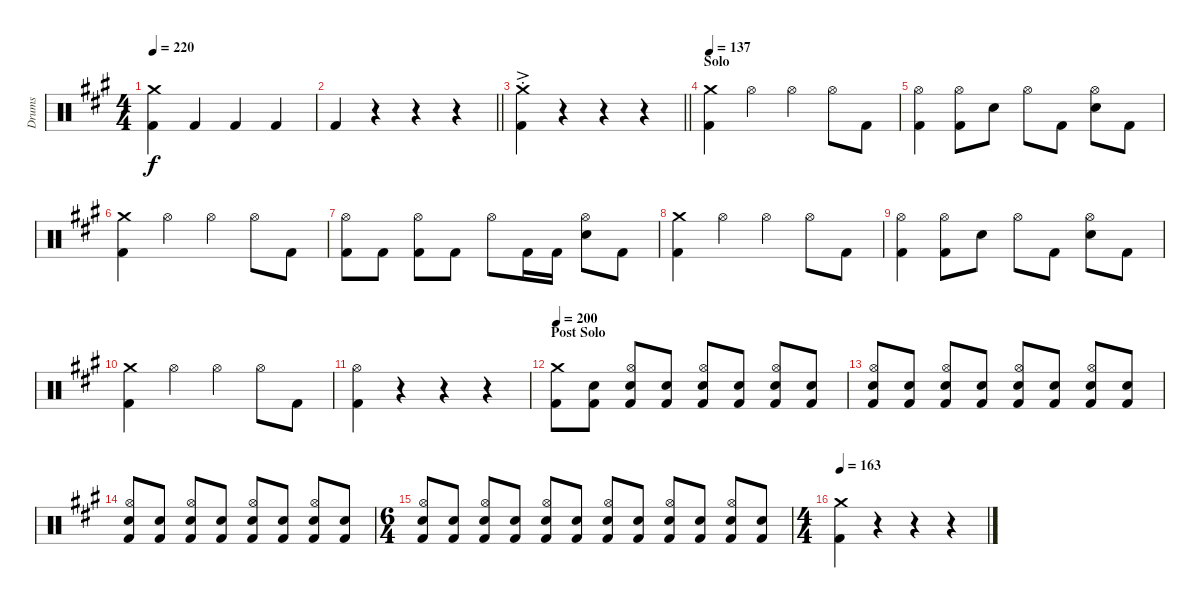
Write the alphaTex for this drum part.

\track ("Drums" "Drums") {instrument percussion}
\staff {score}
\articulation defaults
\ts (4 4)
\tempo 220
\clef neutral
\ks a
("Crash medium (hit)" "Kick (hit) 2").4{dy f} "Kick (hit) 2".4 "Kick (hit) 2".4 "Kick (hit) 2".4 |
\barLineRight lightlight "Kick (hit) 2".4
r.4 r.4 r.4 |
\barLineRight lightlight
("Crash medium (hit)"{ac st} "Kick (hit) 2").4 r.4 r.4 r.4 |
\section ("" "Solo")
\tempo 137
("Crash medium (hit)" "Kick (hit) 2").4 "Hi-Hat (open)".4 "Hi-Hat (open)".4 "Hi-Hat (open)".8 "Kick (hit) 2".8 |
("Hi-Hat (open)" "Kick (hit) 2").4 ("Hi-Hat (open)" "Kick (hit) 2").8 "Snare (hit) 2".8 "Hi-Hat (open)".8 "Kick (hit) 2".8 ("Hi-Hat (open)" "Snare (hit) 2").8 "Kick (hit) 2".8 |
("Crash medium (hit)" "Kick (hit) 2").4 "Hi-Hat (open)".4 "Hi-Hat (open)".4 "Hi-Hat (open)".8 "Kick (hit) 2".8 |
("Kick (hit) 2" "Hi-Hat (open)").8 "Kick (hit) 2".8 ("Kick (hit) 2" "Hi-Hat (open)").8 "Kick (hit) 2".8 "Hi-Hat (open)".8 "Kick (hit) 2".16 "Kick (hit) 2".16 ("Hi-Hat (open)" "Snare (hit) 2").8 "Kick (hit) 2".8 |
("Crash medium (hit)" "Kick (hit) 2").4 "Hi-Hat (open)".4 "Hi-Hat (open)".4 "Hi-Hat (open)".8 "Kick (hit) 2".8 |
("Hi-Hat (open)" "Kick (hit) 2").4 ("Hi-Hat (open)" "Kick (hit) 2").8 "Snare (hit) 2".8 "Hi-Hat (open)".8 "Kick (hit) 2".8 ("Hi-Hat (open)" "Snare (hit) 2").8 "Kick (hit) 2".8 |
("Crash medium (hit)" "Kick (hit) 2").4 "Hi-Hat (open)".4 "Hi-Hat (open)".4 "Hi-Hat (open)".8 "Kick (hit) 2".8 |
("Hi-Hat (open)" "Kick (hit) 2").4 r.4 r.4 r.4 |
\section ("" "Post Solo")
\tempo 200
("Crash medium (hit)" "Kick (hit) 2").8 ("Snare (hit) 2" "Kick (hit) 2").8 ("Hi-Hat (open)" "Snare (hit) 2" "Kick (hit) 2").8 ("Snare (hit) 2" "Kick (hit) 2").8 ("Hi-Hat (open)" "Snare (hit) 2" "Kick (hit) 2").8 ("Snare (hit) 2" "Kick (hit) 2").8 ("Hi-Hat (open)" "Snare (hit) 2" "Kick (hit) 2").8 ("Snare (hit) 2" "Kick (hit) 2").8 |
("Hi-Hat (open)" "Snare (hit) 2" "Kick (hit) 2").8 ("Snare (hit) 2" "Kick (hit) 2").8 ("Hi-Hat (open)" "Snare (hit) 2" "Kick (hit) 2").8 ("Snare (hit) 2" "Kick (hit) 2").8 ("Hi-Hat (open)" "Snare (hit) 2" "Kick (hit) 2").8 ("Snare (hit) 2" "Kick (hit) 2").8 ("Hi-Hat (open)" "Snare (hit) 2" "Kick (hit) 2").8 ("Snare (hit) 2" "Kick (hit) 2").8 |
("Hi-Hat (open)" "Snare (hit) 2" "Kick (hit) 2").8 ("Snare (hit) 2" "Kick (hit) 2").8 ("Hi-Hat (open)" "Snare (hit) 2" "Kick (hit) 2").8 ("Snare (hit) 2" "Kick (hit) 2").8 ("Hi-Hat (open)" "Snare (hit) 2" "Kick (hit) 2").8 ("Snare (hit) 2" "Kick (hit) 2").8 ("Hi-Hat (open)" "Snare (hit) 2" "Kick (hit) 2").8 ("Snare (hit) 2" "Kick (hit) 2").8 |
\ts (6 4)
("Hi-Hat (open)" "Snare (hit) 2" "Kick (hit) 2").8 ("Snare (hit) 2" "Kick (hit) 2").8 ("Hi-Hat (open)" "Snare (hit) 2" "Kick (hit) 2").8 ("Snare (hit) 2" "Kick (hit) 2").8 ("Hi-Hat (open)" "Snare (hit) 2" "Kick (hit) 2").8 ("Snare (hit) 2" "Kick (hit) 2").8 ("Hi-Hat (open)" "Snare (hit) 2" "Kick (hit) 2").8 ("Snare (hit) 2" "Kick (hit) 2").8 ("Hi-Hat (open)" "Snare (hit) 2" "Kick (hit) 2").8 ("Snare (hit) 2" "Kick (hit) 2").8 ("Hi-Hat (open)" "Snare (hit) 2" "Kick (hit) 2").8 ("Snare (hit) 2" "Kick (hit) 2").8 |
\ts (4 4)
\tempo 163
("Crash medium (hit)" "Kick (hit) 2").4 r.4 r.4 r.4
